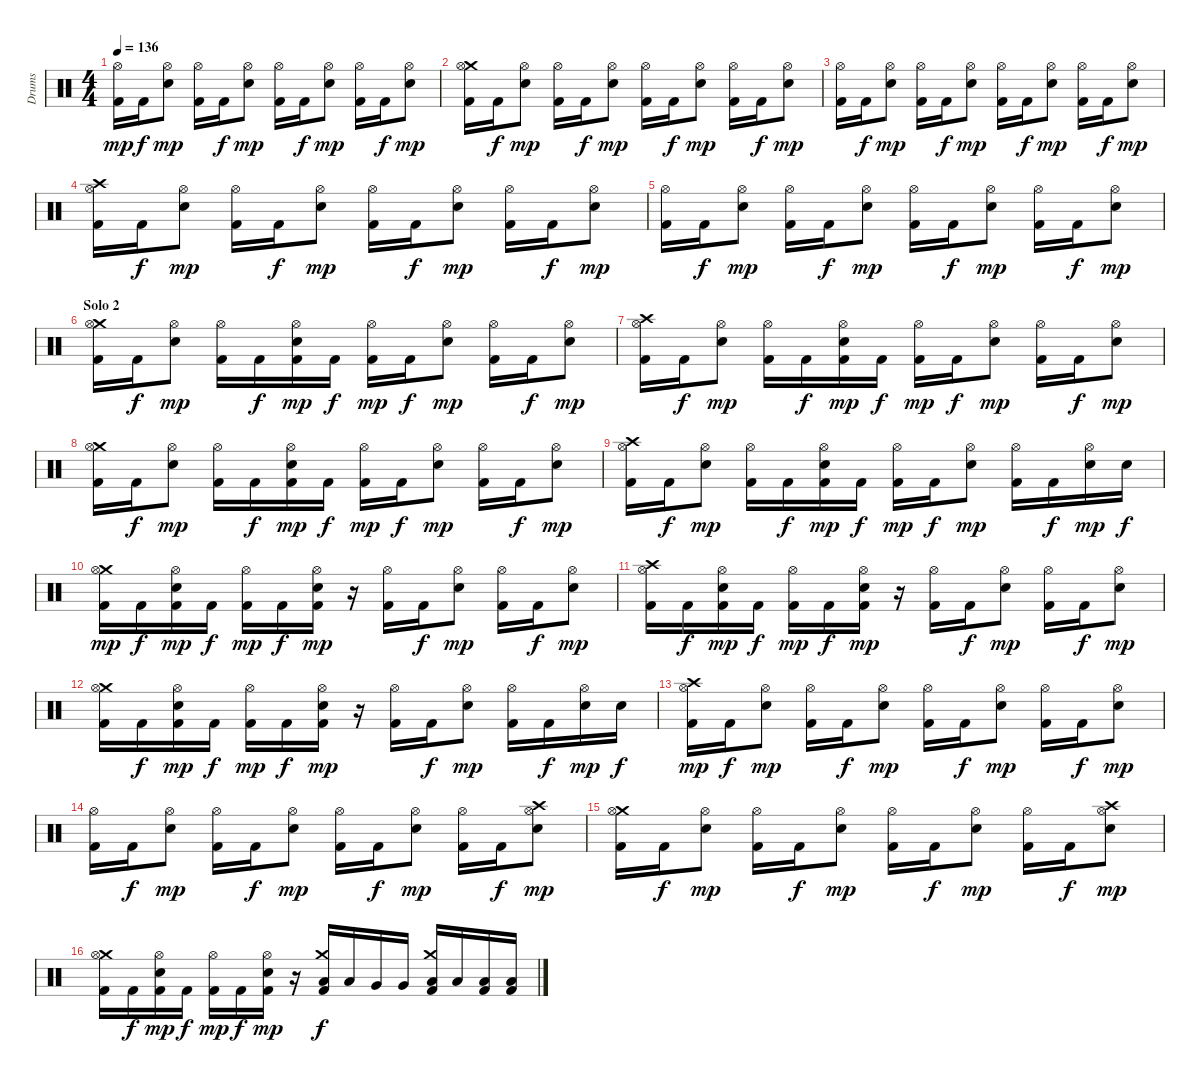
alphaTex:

\track ("Drums" "Drums") {instrument percussion}
\staff {score}
\articulation defaults
\ts (4 4)
\tempo 136
\clef neutral
\ks c
("Hi-Hat (open)" "Kick (hit) 2").16{dy mp} "Kick (hit) 2".16{dy f} ("Hi-Hat (open)" "Snare (hit) 2").8{dy mp} ("Hi-Hat (open)" "Kick (hit) 2").16 "Kick (hit) 2".16{dy f} ("Hi-Hat (open)" "Snare (hit) 2").8{dy mp} ("Hi-Hat (open)" "Kick (hit) 2").16 "Kick (hit) 2".16{dy f} ("Hi-Hat (open)" "Snare (hit) 2").8{dy mp} ("Hi-Hat (open)" "Kick (hit) 2").16 "Kick (hit) 2".16{dy f} ("Hi-Hat (open)" "Snare (hit) 2").8{dy mp} |
("Crash medium (hit)" "Hi-Hat (open)" "Kick (hit) 2").16 "Kick (hit) 2".16{dy f} ("Hi-Hat (open)" "Snare (hit) 2").8{dy mp} ("Hi-Hat (open)" "Kick (hit) 2").16 "Kick (hit) 2".16{dy f} ("Hi-Hat (open)" "Snare (hit) 2").8{dy mp} ("Hi-Hat (open)" "Kick (hit) 2").16 "Kick (hit) 2".16{dy f} ("Hi-Hat (open)" "Snare (hit) 2").8{dy mp} ("Hi-Hat (open)" "Kick (hit) 2").16 "Kick (hit) 2".16{dy f} ("Hi-Hat (open)" "Snare (hit) 2").8{dy mp} |
("Hi-Hat (open)" "Kick (hit) 2").16 "Kick (hit) 2".16{dy f} ("Hi-Hat (open)" "Snare (hit) 2").8{dy mp} ("Hi-Hat (open)" "Kick (hit) 2").16 "Kick (hit) 2".16{dy f} ("Hi-Hat (open)" "Snare (hit) 2").8{dy mp} ("Hi-Hat (open)" "Kick (hit) 2").16 "Kick (hit) 2".16{dy f} ("Hi-Hat (open)" "Snare (hit) 2").8{dy mp} ("Hi-Hat (open)" "Kick (hit) 2").16 "Kick (hit) 2".16{dy f} ("Hi-Hat (open)" "Snare (hit) 2").8{dy mp} |
("Crash high (hit)" "Hi-Hat (open)" "Kick (hit) 2").16 "Kick (hit) 2".16{dy f} ("Hi-Hat (open)" "Snare (hit) 2").8{dy mp} ("Hi-Hat (open)" "Kick (hit) 2").16 "Kick (hit) 2".16{dy f} ("Hi-Hat (open)" "Snare (hit) 2").8{dy mp} ("Hi-Hat (open)" "Kick (hit) 2").16 "Kick (hit) 2".16{dy f} ("Hi-Hat (open)" "Snare (hit) 2").8{dy mp} ("Hi-Hat (open)" "Kick (hit) 2").16 "Kick (hit) 2".16{dy f} ("Hi-Hat (open)" "Snare (hit) 2").8{dy mp} |
("Hi-Hat (open)" "Kick (hit) 2").16 "Kick (hit) 2".16{dy f} ("Hi-Hat (open)" "Snare (hit) 2").8{dy mp} ("Hi-Hat (open)" "Kick (hit) 2").16 "Kick (hit) 2".16{dy f} ("Hi-Hat (open)" "Snare (hit) 2").8{dy mp} ("Hi-Hat (open)" "Kick (hit) 2").16 "Kick (hit) 2".16{dy f} ("Hi-Hat (open)" "Snare (hit) 2").8{dy mp} ("Hi-Hat (open)" "Kick (hit) 2").16 "Kick (hit) 2".16{dy f} ("Hi-Hat (open)" "Snare (hit) 2").8{dy mp} |
\section ("" "Solo 2")
("Crash medium (hit)" "Hi-Hat (open)" "Kick (hit) 2").16 "Kick (hit) 2".16{dy f} ("Hi-Hat (open)" "Snare (hit) 2").8{dy mp} ("Hi-Hat (open)" "Kick (hit) 2").16 "Kick (hit) 2".16{dy f} ("Hi-Hat (open)" "Snare (hit) 2" "Kick (hit) 2").16{dy mp} "Kick (hit) 2".16{dy f} ("Hi-Hat (open)" "Kick (hit) 2").16{dy mp} "Kick (hit) 2".16{dy f} ("Hi-Hat (open)" "Snare (hit) 2").8{dy mp} ("Hi-Hat (open)" "Kick (hit) 2").16 "Kick (hit) 2".16{dy f} ("Hi-Hat (open)" "Snare (hit) 2").8{dy mp} |
("Crash high (hit)" "Hi-Hat (open)" "Kick (hit) 2").16 "Kick (hit) 2".16{dy f} ("Hi-Hat (open)" "Snare (hit) 2").8{dy mp} ("Hi-Hat (open)" "Kick (hit) 2").16 "Kick (hit) 2".16{dy f} ("Hi-Hat (open)" "Snare (hit) 2" "Kick (hit) 2").16{dy mp} "Kick (hit) 2".16{dy f} ("Hi-Hat (open)" "Kick (hit) 2").16{dy mp} "Kick (hit) 2".16{dy f} ("Hi-Hat (open)" "Snare (hit) 2").8{dy mp} ("Hi-Hat (open)" "Kick (hit) 2").16 "Kick (hit) 2".16{dy f} ("Hi-Hat (open)" "Snare (hit) 2").8{dy mp} |
("Crash medium (hit)" "Hi-Hat (open)" "Kick (hit) 2").16 "Kick (hit) 2".16{dy f} ("Hi-Hat (open)" "Snare (hit) 2").8{dy mp} ("Hi-Hat (open)" "Kick (hit) 2").16 "Kick (hit) 2".16{dy f} ("Hi-Hat (open)" "Snare (hit) 2" "Kick (hit) 2").16{dy mp} "Kick (hit) 2".16{dy f} ("Hi-Hat (open)" "Kick (hit) 2").16{dy mp} "Kick (hit) 2".16{dy f} ("Hi-Hat (open)" "Snare (hit) 2").8{dy mp} ("Hi-Hat (open)" "Kick (hit) 2").16 "Kick (hit) 2".16{dy f} ("Hi-Hat (open)" "Snare (hit) 2").8{dy mp} |
("Crash high (hit)" "Hi-Hat (open)" "Kick (hit) 2").16 "Kick (hit) 2".16{dy f} ("Hi-Hat (open)" "Snare (hit) 2").8{dy mp} ("Hi-Hat (open)" "Kick (hit) 2").16 "Kick (hit) 2".16{dy f} ("Hi-Hat (open)" "Snare (hit) 2" "Kick (hit) 2").16{dy mp} "Kick (hit) 2".16{dy f} ("Hi-Hat (open)" "Kick (hit) 2").16{dy mp} "Kick (hit) 2".16{dy f} ("Hi-Hat (open)" "Snare (hit) 2").8{dy mp} ("Hi-Hat (open)" "Kick (hit) 2").16 "Kick (hit) 2".16{dy f} ("Hi-Hat (open)" "Snare (hit) 2").16{dy mp} "Snare (hit) 2".16{dy f} |
("Crash medium (hit)" "Hi-Hat (open)" "Kick (hit) 2").16{dy mp} "Kick (hit) 2".16{dy f} ("Hi-Hat (open)" "Snare (hit) 2" "Kick (hit) 2").16{dy mp} "Kick (hit) 2".16{dy f} ("Hi-Hat (open)" "Kick (hit) 2").16{dy mp} "Kick (hit) 2".16{dy f} ("Hi-Hat (open)" "Snare (hit) 2" "Kick (hit) 2").16{dy mp} r.16 ("Hi-Hat (open)" "Kick (hit) 2").16 "Kick (hit) 2".16{dy f} ("Hi-Hat (open)" "Snare (hit) 2").8{dy mp} ("Hi-Hat (open)" "Kick (hit) 2").16 "Kick (hit) 2".16{dy f} ("Hi-Hat (open)" "Snare (hit) 2").8{dy mp} |
("Crash high (hit)" "Hi-Hat (open)" "Kick (hit) 2").16 "Kick (hit) 2".16{dy f} ("Hi-Hat (open)" "Snare (hit) 2" "Kick (hit) 2").16{dy mp} "Kick (hit) 2".16{dy f} ("Hi-Hat (open)" "Kick (hit) 2").16{dy mp} "Kick (hit) 2".16{dy f} ("Hi-Hat (open)" "Snare (hit) 2" "Kick (hit) 2").16{dy mp} r.16 ("Hi-Hat (open)" "Kick (hit) 2").16 "Kick (hit) 2".16{dy f} ("Hi-Hat (open)" "Snare (hit) 2").8{dy mp} ("Hi-Hat (open)" "Kick (hit) 2").16 "Kick (hit) 2".16{dy f} ("Hi-Hat (open)" "Snare (hit) 2").8{dy mp} |
("Crash medium (hit)" "Hi-Hat (open)" "Kick (hit) 2").16 "Kick (hit) 2".16{dy f} ("Hi-Hat (open)" "Snare (hit) 2" "Kick (hit) 2").16{dy mp} "Kick (hit) 2".16{dy f} ("Hi-Hat (open)" "Kick (hit) 2").16{dy mp} "Kick (hit) 2".16{dy f} ("Hi-Hat (open)" "Snare (hit) 2" "Kick (hit) 2").16{dy mp} r.16 ("Hi-Hat (open)" "Kick (hit) 2").16 "Kick (hit) 2".16{dy f} ("Hi-Hat (open)" "Snare (hit) 2").8{dy mp} ("Hi-Hat (open)" "Kick (hit) 2").16 "Kick (hit) 2".16{dy f} ("Hi-Hat (open)" "Snare (hit) 2").16{dy mp} "Snare (hit) 2".16{dy f} |
("Crash high (hit)" "Hi-Hat (open)" "Kick (hit) 2").16{dy mp} "Kick (hit) 2".16{dy f} ("Hi-Hat (open)" "Snare (hit) 2").8{dy mp} ("Hi-Hat (open)" "Kick (hit) 2").16 "Kick (hit) 2".16{dy f} ("Hi-Hat (open)" "Snare (hit) 2").8{dy mp} ("Hi-Hat (open)" "Kick (hit) 2").16 "Kick (hit) 2".16{dy f} ("Hi-Hat (open)" "Snare (hit) 2").8{dy mp} ("Hi-Hat (open)" "Kick (hit) 2").16 "Kick (hit) 2".16{dy f} ("Hi-Hat (open)" "Snare (hit) 2").8{dy mp} |
("Hi-Hat (open)" "Kick (hit) 2").16 "Kick (hit) 2".16{dy f} ("Hi-Hat (open)" "Snare (hit) 2").8{dy mp} ("Hi-Hat (open)" "Kick (hit) 2").16 "Kick (hit) 2".16{dy f} ("Hi-Hat (open)" "Snare (hit) 2").8{dy mp} ("Hi-Hat (open)" "Kick (hit) 2").16 "Kick (hit) 2".16{dy f} ("Hi-Hat (open)" "Snare (hit) 2").8{dy mp} ("Hi-Hat (open)" "Kick (hit) 2").16 "Kick (hit) 2".16{dy f} ("Crash high (hit)" "Hi-Hat (open)" "Snare (hit) 2").8{dy mp} |
("Crash medium (hit)" "Hi-Hat (open)" "Kick (hit) 2").16 "Kick (hit) 2".16{dy f} ("Hi-Hat (open)" "Snare (hit) 2").8{dy mp} ("Hi-Hat (open)" "Kick (hit) 2").16 "Kick (hit) 2".16{dy f} ("Hi-Hat (open)" "Snare (hit) 2").8{dy mp} ("Hi-Hat (open)" "Kick (hit) 2").16 "Kick (hit) 2".16{dy f} ("Hi-Hat (open)" "Snare (hit) 2").8{dy mp} ("Hi-Hat (open)" "Kick (hit) 2").16 "Kick (hit) 2".16{dy f} ("Crash high (hit)" "Hi-Hat (open)" "Snare (hit) 2").8{dy mp} |
("Crash medium (hit)" "Hi-Hat (open)" "Kick (hit) 2").16 "Kick (hit) 2".16{dy f} ("Hi-Hat (open)" "Snare (hit) 2" "Kick (hit) 2").16{dy mp} "Kick (hit) 2".16{dy f} ("Hi-Hat (open)" "Kick (hit) 2").16{dy mp} "Kick (hit) 2".16{dy f} ("Hi-Hat (open)" "Snare (hit) 2" "Kick (hit) 2").16{dy mp} r.16 ("Crash medium (hit)" "Low Tom (hit)" "Kick (hit) 2").16{dy f} "Low Tom (hit)".16 "Very Low Tom (hit)".16 "Very Low Tom (hit)".16 ("Crash medium (hit)" "Low Floor Tom (hit)" "Kick (hit) 2").16 "Low Floor Tom (hit)".16 ("Low Floor Tom (hit)" "Kick (hit) 2").16 ("Low Floor Tom (hit)" "Kick (hit) 2").16
